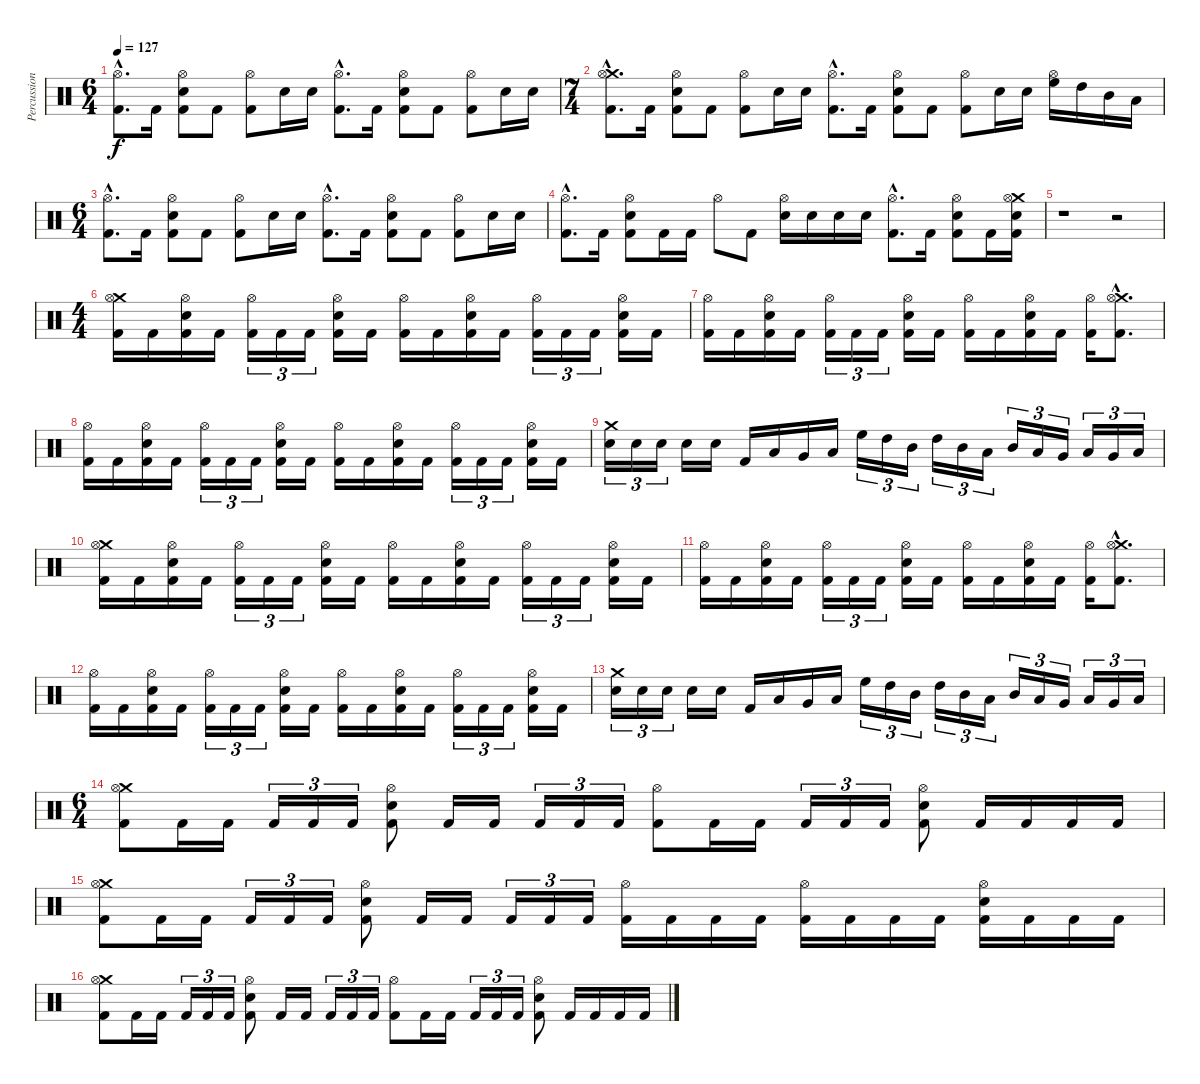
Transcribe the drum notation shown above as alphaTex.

\track ("Percussion" "Percussion") {instrument percussion}
\staff {score}
\articulation defaults
\ts (6 4)
\tempo 127
\clef neutral
\ks c
("Hi-Hat (open)"{hac} "Kick (hit) 2"{hac}).8{d dy f} "Kick (hit) 2".16 ("Hi-Hat (open)" "Electric Snare (hit)" "Kick (hit) 2").8 "Kick (hit) 2".8 ("Hi-Hat (open)" "Kick (hit) 2").8 "Electric Snare (hit)".16 "Electric Snare (hit)".16 ("Hi-Hat (open)"{hac} "Kick (hit) 2"{hac}).8{d} "Kick (hit) 2".16 ("Hi-Hat (open)" "Electric Snare (hit)" "Kick (hit) 2").8 "Kick (hit) 2".8 ("Hi-Hat (open)" "Kick (hit) 2").8 "Electric Snare (hit)".16 "Electric Snare (hit)".16 |
\ts (7 4)
("Crash medium (hit)"{hac} "Hi-Hat (open)"{hac} "Kick (hit) 2"{hac}).8{d} "Kick (hit) 2".16 ("Hi-Hat (open)" "Electric Snare (hit)" "Kick (hit) 2").8 "Kick (hit) 2".8 ("Hi-Hat (open)" "Kick (hit) 2").8 "Electric Snare (hit)".16 "Electric Snare (hit)".16 ("Hi-Hat (open)"{hac} "Kick (hit) 2"{hac}).8{d} "Kick (hit) 2".16 ("Hi-Hat (open)" "Electric Snare (hit)" "Kick (hit) 2").8 "Kick (hit) 2".8 ("Hi-Hat (open)" "Kick (hit) 2").8 "Electric Snare (hit)".16 "Electric Snare (hit)".16 ("Hi-Hat (open)" "High Floor Tom (hit)").16 "High Tom (hit)".16 "Mid Tom (hit)".16 "Low Tom (hit)".16 |
\ts (6 4)
("Hi-Hat (open)"{hac} "Kick (hit) 2"{hac}).8{d} "Kick (hit) 2".16 ("Hi-Hat (open)" "Electric Snare (hit)" "Kick (hit) 2").8 "Kick (hit) 2".8 ("Hi-Hat (open)" "Kick (hit) 2").8 "Electric Snare (hit)".16 "Electric Snare (hit)".16 ("Hi-Hat (open)"{hac} "Kick (hit) 2"{hac}).8{d} "Kick (hit) 2".16 ("Hi-Hat (open)" "Electric Snare (hit)" "Kick (hit) 2").8 "Kick (hit) 2".8 ("Hi-Hat (open)" "Kick (hit) 2").8 "Electric Snare (hit)".16 "Electric Snare (hit)".16 |
("Hi-Hat (open)"{hac} "Kick (hit) 2"{hac}).8{d} "Kick (hit) 2".16 ("Hi-Hat (open)" "Electric Snare (hit)" "Kick (hit) 2").8 "Kick (hit) 2".16 "Kick (hit) 2".16 "Hi-Hat (open)".8 "Kick (hit) 2".8 ("Hi-Hat (open)" "Electric Snare (hit)").16 "Electric Snare (hit)".16 "Electric Snare (hit)".16 "Electric Snare (hit)".16 ("Hi-Hat (open)"{hac} "Kick (hit) 2"{hac}).8{d} "Kick (hit) 2".16 ("Hi-Hat (open)" "Electric Snare (hit)" "Kick (hit) 2").8 "Kick (hit) 2".16 ("Crash medium (hit)" "Hi-Hat (open)" "Electric Snare (hit)" "Kick (hit) 2").16 |
r.1 r.2 |
\ts (4 4)
("Crash medium (hit)" "Hi-Hat (open)" "Kick (hit) 2").16 "Kick (hit) 2".16 ("Hi-Hat (open)" "Electric Snare (hit)" "Kick (hit) 2").16 "Kick (hit) 2".16 ("Hi-Hat (open)" "Kick (hit) 2").16{tu (3 2)} "Kick (hit) 2".16{tu (3 2)} "Kick (hit) 2".16{tu (3 2)} ("Hi-Hat (open)" "Electric Snare (hit)" "Kick (hit) 2").16 "Kick (hit) 2".16 ("Hi-Hat (open)" "Kick (hit) 2").16 "Kick (hit) 2".16 ("Hi-Hat (open)" "Electric Snare (hit)" "Kick (hit) 2").16 "Kick (hit) 2".16 ("Hi-Hat (open)" "Kick (hit) 2").16{tu (3 2)} "Kick (hit) 2".16{tu (3 2)} "Kick (hit) 2".16{tu (3 2)} ("Hi-Hat (open)" "Electric Snare (hit)" "Kick (hit) 2").16 "Kick (hit) 2".16 |
("Hi-Hat (open)" "Kick (hit) 2").16 "Kick (hit) 2".16 ("Hi-Hat (open)" "Electric Snare (hit)" "Kick (hit) 2").16 "Kick (hit) 2".16 ("Hi-Hat (open)" "Kick (hit) 2").16{tu (3 2)} "Kick (hit) 2".16{tu (3 2)} "Kick (hit) 2".16{tu (3 2)} ("Hi-Hat (open)" "Electric Snare (hit)" "Kick (hit) 2").16 "Kick (hit) 2".16 ("Hi-Hat (open)" "Kick (hit) 2").16 "Kick (hit) 2".16 ("Hi-Hat (open)" "Electric Snare (hit)" "Kick (hit) 2").16 "Kick (hit) 2".16 ("Hi-Hat (open)" "Kick (hit) 2").16 ("Crash medium (hit)"{hac} "Hi-Hat (open)"{hac} "Kick (hit) 2"{hac}).8{d} |
("Hi-Hat (open)" "Kick (hit) 2").16 "Kick (hit) 2".16 ("Hi-Hat (open)" "Electric Snare (hit)" "Kick (hit) 2").16 "Kick (hit) 2".16 ("Hi-Hat (open)" "Kick (hit) 2").16{tu (3 2)} "Kick (hit) 2".16{tu (3 2)} "Kick (hit) 2".16{tu (3 2)} ("Hi-Hat (open)" "Electric Snare (hit)" "Kick (hit) 2").16 "Kick (hit) 2".16 ("Hi-Hat (open)" "Kick (hit) 2").16 "Kick (hit) 2".16 ("Hi-Hat (open)" "Electric Snare (hit)" "Kick (hit) 2").16 "Kick (hit) 2".16 ("Hi-Hat (open)" "Kick (hit) 2").16{tu (3 2)} "Kick (hit) 2".16{tu (3 2)} "Kick (hit) 2".16{tu (3 2)} ("Hi-Hat (open)" "Electric Snare (hit)" "Kick (hit) 2").16 "Kick (hit) 2".16 |
("Crash medium (hit)" "Electric Snare (hit)").16{tu (3 2)} "Electric Snare (hit)".16{tu (3 2)} "Electric Snare (hit)".16{tu (3 2)} "Electric Snare (hit)".16 "Electric Snare (hit)".16 "Kick (hit) 2".16 "Low Tom (hit)".16 "Very Low Tom (hit)".16 "Low Floor Tom (hit)".16 "High Floor Tom (hit)".16{tu (3 2)} "High Tom (hit)".16{tu (3 2)} "Mid Tom (hit)".16{tu (3 2)} "High Tom (hit)".16{tu (3 2)} "Mid Tom (hit)".16{tu (3 2)} "Low Tom (hit)".16{tu (3 2)} "Mid Tom (hit)".16{tu (3 2)} "Low Tom (hit)".16{tu (3 2)} "Very Low Tom (hit)".16{tu (3 2)} "Low Tom (hit)".16{tu (3 2)} "Very Low Tom (hit)".16{tu (3 2)} "Low Floor Tom (hit)".16{tu (3 2)} |
("Crash medium (hit)" "Hi-Hat (open)" "Kick (hit) 2").16 "Kick (hit) 2".16 ("Hi-Hat (open)" "Electric Snare (hit)" "Kick (hit) 2").16 "Kick (hit) 2".16 ("Hi-Hat (open)" "Kick (hit) 2").16{tu (3 2)} "Kick (hit) 2".16{tu (3 2)} "Kick (hit) 2".16{tu (3 2)} ("Hi-Hat (open)" "Electric Snare (hit)" "Kick (hit) 2").16 "Kick (hit) 2".16 ("Hi-Hat (open)" "Kick (hit) 2").16 "Kick (hit) 2".16 ("Hi-Hat (open)" "Electric Snare (hit)" "Kick (hit) 2").16 "Kick (hit) 2".16 ("Hi-Hat (open)" "Kick (hit) 2").16{tu (3 2)} "Kick (hit) 2".16{tu (3 2)} "Kick (hit) 2".16{tu (3 2)} ("Hi-Hat (open)" "Electric Snare (hit)" "Kick (hit) 2").16 "Kick (hit) 2".16 |
("Hi-Hat (open)" "Kick (hit) 2").16 "Kick (hit) 2".16 ("Hi-Hat (open)" "Electric Snare (hit)" "Kick (hit) 2").16 "Kick (hit) 2".16 ("Hi-Hat (open)" "Kick (hit) 2").16{tu (3 2)} "Kick (hit) 2".16{tu (3 2)} "Kick (hit) 2".16{tu (3 2)} ("Hi-Hat (open)" "Electric Snare (hit)" "Kick (hit) 2").16 "Kick (hit) 2".16 ("Hi-Hat (open)" "Kick (hit) 2").16 "Kick (hit) 2".16 ("Hi-Hat (open)" "Electric Snare (hit)" "Kick (hit) 2").16 "Kick (hit) 2".16 ("Hi-Hat (open)" "Kick (hit) 2").16 ("Crash medium (hit)"{hac} "Hi-Hat (open)"{hac} "Kick (hit) 2"{hac}).8{d} |
("Hi-Hat (open)" "Kick (hit) 2").16 "Kick (hit) 2".16 ("Hi-Hat (open)" "Electric Snare (hit)" "Kick (hit) 2").16 "Kick (hit) 2".16 ("Hi-Hat (open)" "Kick (hit) 2").16{tu (3 2)} "Kick (hit) 2".16{tu (3 2)} "Kick (hit) 2".16{tu (3 2)} ("Hi-Hat (open)" "Electric Snare (hit)" "Kick (hit) 2").16 "Kick (hit) 2".16 ("Hi-Hat (open)" "Kick (hit) 2").16 "Kick (hit) 2".16 ("Hi-Hat (open)" "Electric Snare (hit)" "Kick (hit) 2").16 "Kick (hit) 2".16 ("Hi-Hat (open)" "Kick (hit) 2").16{tu (3 2)} "Kick (hit) 2".16{tu (3 2)} "Kick (hit) 2".16{tu (3 2)} ("Hi-Hat (open)" "Electric Snare (hit)" "Kick (hit) 2").16 "Kick (hit) 2".16 |
("Crash medium (hit)" "Electric Snare (hit)").16{tu (3 2)} "Electric Snare (hit)".16{tu (3 2)} "Electric Snare (hit)".16{tu (3 2)} "Electric Snare (hit)".16 "Electric Snare (hit)".16 "Kick (hit) 2".16 "Low Tom (hit)".16 "Very Low Tom (hit)".16 "Low Floor Tom (hit)".16 "High Floor Tom (hit)".16{tu (3 2)} "High Tom (hit)".16{tu (3 2)} "Mid Tom (hit)".16{tu (3 2)} "High Tom (hit)".16{tu (3 2)} "Mid Tom (hit)".16{tu (3 2)} "Low Tom (hit)".16{tu (3 2)} "Mid Tom (hit)".16{tu (3 2)} "Low Tom (hit)".16{tu (3 2)} "Very Low Tom (hit)".16{tu (3 2)} "Low Tom (hit)".16{tu (3 2)} "Very Low Tom (hit)".16{tu (3 2)} "Low Floor Tom (hit)".16{tu (3 2)} |
\ts (6 4)
("Crash medium (hit)" "Hi-Hat (open)" "Kick (hit) 2").8 "Kick (hit) 2".16 "Kick (hit) 2".16 "Kick (hit) 2".16{tu (3 2)} "Kick (hit) 2".16{tu (3 2)} "Kick (hit) 2".16{tu (3 2)} ("Hi-Hat (open)" "Electric Snare (hit)" "Kick (hit) 2").8 "Kick (hit) 2".16 "Kick (hit) 2".16 "Kick (hit) 2".16{tu (3 2)} "Kick (hit) 2".16{tu (3 2)} "Kick (hit) 2".16{tu (3 2)} ("Hi-Hat (open)" "Kick (hit) 2").8 "Kick (hit) 2".16 "Kick (hit) 2".16 "Kick (hit) 2".16{tu (3 2)} "Kick (hit) 2".16{tu (3 2)} "Kick (hit) 2".16{tu (3 2)} ("Hi-Hat (open)" "Electric Snare (hit)" "Kick (hit) 2").8 "Kick (hit) 2".16 "Kick (hit) 2".16 "Kick (hit) 2".16 "Kick (hit) 2".16 |
("Crash medium (hit)" "Hi-Hat (open)" "Kick (hit) 2").8 "Kick (hit) 2".16 "Kick (hit) 2".16 "Kick (hit) 2".16{tu (3 2)} "Kick (hit) 2".16{tu (3 2)} "Kick (hit) 2".16{tu (3 2)} ("Hi-Hat (open)" "Electric Snare (hit)" "Kick (hit) 2").8 "Kick (hit) 2".16 "Kick (hit) 2".16 "Kick (hit) 2".16{tu (3 2)} "Kick (hit) 2".16{tu (3 2)} "Kick (hit) 2".16{tu (3 2)} ("Hi-Hat (open)" "Kick (hit) 2").16 "Kick (hit) 2".16 "Kick (hit) 2".16 "Kick (hit) 2".16 ("Hi-Hat (open)" "Kick (hit) 2").16 "Kick (hit) 2".16 "Kick (hit) 2".16 "Kick (hit) 2".16 ("Hi-Hat (open)" "Electric Snare (hit)" "Kick (hit) 2").16 "Kick (hit) 2".16 "Kick (hit) 2".16 "Kick (hit) 2".16 |
("Crash medium (hit)" "Hi-Hat (open)" "Kick (hit) 2").8 "Kick (hit) 2".16 "Kick (hit) 2".16 "Kick (hit) 2".16{tu (3 2)} "Kick (hit) 2".16{tu (3 2)} "Kick (hit) 2".16{tu (3 2)} ("Hi-Hat (open)" "Electric Snare (hit)" "Kick (hit) 2").8 "Kick (hit) 2".16 "Kick (hit) 2".16 "Kick (hit) 2".16{tu (3 2)} "Kick (hit) 2".16{tu (3 2)} "Kick (hit) 2".16{tu (3 2)} ("Hi-Hat (open)" "Kick (hit) 2").8 "Kick (hit) 2".16 "Kick (hit) 2".16 "Kick (hit) 2".16{tu (3 2)} "Kick (hit) 2".16{tu (3 2)} "Kick (hit) 2".16{tu (3 2)} ("Hi-Hat (open)" "Electric Snare (hit)" "Kick (hit) 2").8 "Kick (hit) 2".16 "Kick (hit) 2".16 "Kick (hit) 2".16 "Kick (hit) 2".16
